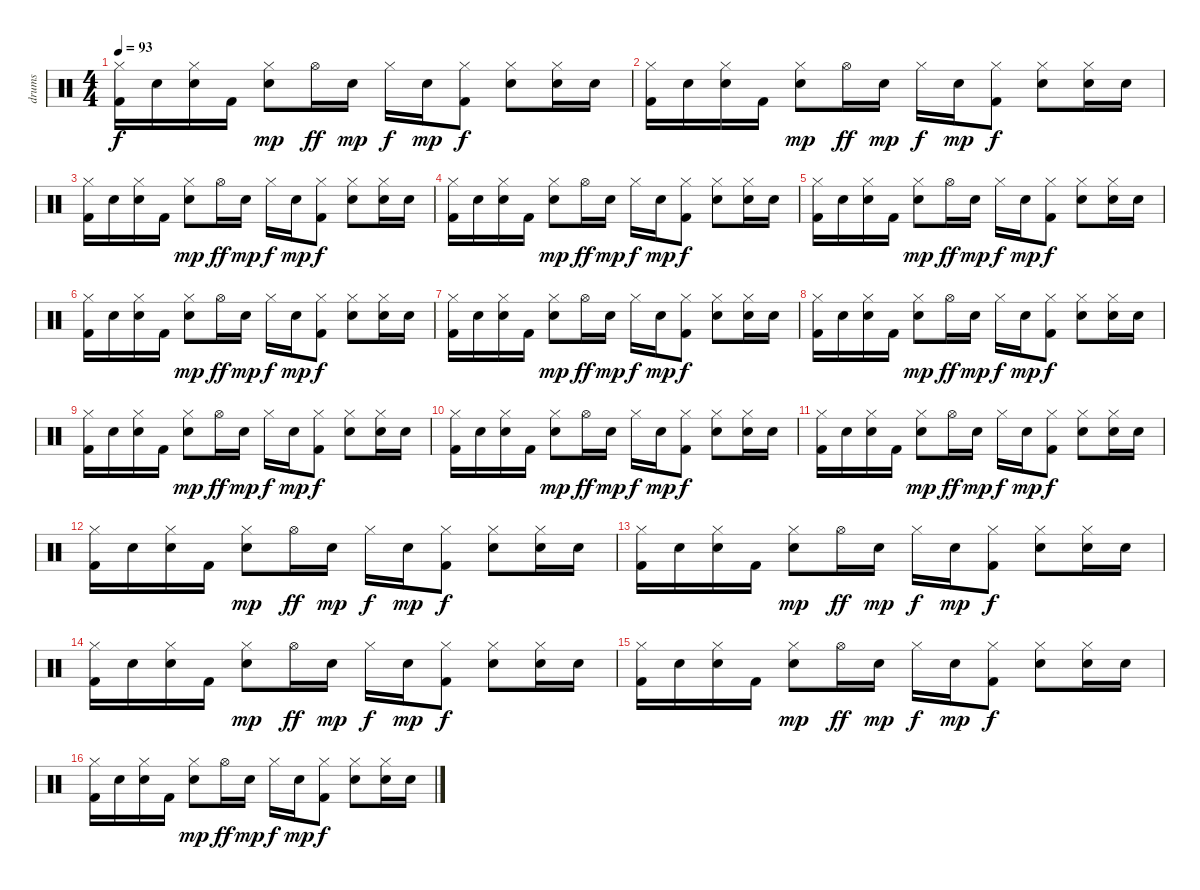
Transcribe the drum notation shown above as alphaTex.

\track ("drums" "drums") {instrument percussion}
\staff {score}
\articulation defaults
\ts (4 4)
\tempo 93
\clef neutral
\ks c
("Hi-Hat (closed)" "Kick (hit) 2").16{dy f} "Electric Snare (hit)".16 ("Hi-Hat (closed)" "Electric Snare (hit)").16 "Kick (hit) 2".16 ("Hi-Hat (closed)" "Electric Snare (hit)").8{dy mp} "Hi-Hat (open)".16{dy ff} "Electric Snare (hit)".16{dy mp} "Hi-Hat (closed)".16{dy f} "Electric Snare (hit)".16{dy mp} ("Hi-Hat (closed)" "Kick (hit) 2").8{dy f} ("Hi-Hat (closed)" "Electric Snare (hit)").8 ("Hi-Hat (closed)" "Electric Snare (hit)").16 "Electric Snare (hit)".16 |
("Hi-Hat (closed)" "Kick (hit) 2").16 "Electric Snare (hit)".16 ("Hi-Hat (closed)" "Electric Snare (hit)").16 "Kick (hit) 2".16 ("Hi-Hat (closed)" "Electric Snare (hit)").8{dy mp} "Hi-Hat (open)".16{dy ff} "Electric Snare (hit)".16{dy mp} "Hi-Hat (closed)".16{dy f} "Electric Snare (hit)".16{dy mp} ("Hi-Hat (closed)" "Kick (hit) 2").8{dy f} ("Hi-Hat (closed)" "Electric Snare (hit)").8 ("Hi-Hat (closed)" "Electric Snare (hit)").16 "Electric Snare (hit)".16 |
("Hi-Hat (closed)" "Kick (hit) 2").16 "Electric Snare (hit)".16 ("Hi-Hat (closed)" "Electric Snare (hit)").16 "Kick (hit) 2".16 ("Hi-Hat (closed)" "Electric Snare (hit)").8{dy mp} "Hi-Hat (open)".16{dy ff} "Electric Snare (hit)".16{dy mp} "Hi-Hat (closed)".16{dy f} "Electric Snare (hit)".16{dy mp} ("Hi-Hat (closed)" "Kick (hit) 2").8{dy f} ("Hi-Hat (closed)" "Electric Snare (hit)").8 ("Hi-Hat (closed)" "Electric Snare (hit)").16 "Electric Snare (hit)".16 |
("Hi-Hat (closed)" "Kick (hit) 2").16 "Electric Snare (hit)".16 ("Hi-Hat (closed)" "Electric Snare (hit)").16 "Kick (hit) 2".16 ("Hi-Hat (closed)" "Electric Snare (hit)").8{dy mp} "Hi-Hat (open)".16{dy ff} "Electric Snare (hit)".16{dy mp} "Hi-Hat (closed)".16{dy f} "Electric Snare (hit)".16{dy mp} ("Hi-Hat (closed)" "Kick (hit) 2").8{dy f} ("Hi-Hat (closed)" "Electric Snare (hit)").8 ("Hi-Hat (closed)" "Electric Snare (hit)").16 "Electric Snare (hit)".16 |
("Hi-Hat (closed)" "Kick (hit) 2").16 "Electric Snare (hit)".16 ("Hi-Hat (closed)" "Electric Snare (hit)").16 "Kick (hit) 2".16 ("Hi-Hat (closed)" "Electric Snare (hit)").8{dy mp} "Hi-Hat (open)".16{dy ff} "Electric Snare (hit)".16{dy mp} "Hi-Hat (closed)".16{dy f} "Electric Snare (hit)".16{dy mp} ("Hi-Hat (closed)" "Kick (hit) 2").8{dy f} ("Hi-Hat (closed)" "Electric Snare (hit)").8 ("Hi-Hat (closed)" "Electric Snare (hit)").16 "Electric Snare (hit)".16 |
("Hi-Hat (closed)" "Kick (hit) 2").16 "Electric Snare (hit)".16 ("Hi-Hat (closed)" "Electric Snare (hit)").16 "Kick (hit) 2".16 ("Hi-Hat (closed)" "Electric Snare (hit)").8{dy mp} "Hi-Hat (open)".16{dy ff} "Electric Snare (hit)".16{dy mp} "Hi-Hat (closed)".16{dy f} "Electric Snare (hit)".16{dy mp} ("Hi-Hat (closed)" "Kick (hit) 2").8{dy f} ("Hi-Hat (closed)" "Electric Snare (hit)").8 ("Hi-Hat (closed)" "Electric Snare (hit)").16 "Electric Snare (hit)".16 |
("Hi-Hat (closed)" "Kick (hit) 2").16 "Electric Snare (hit)".16 ("Hi-Hat (closed)" "Electric Snare (hit)").16 "Kick (hit) 2".16 ("Hi-Hat (closed)" "Electric Snare (hit)").8{dy mp} "Hi-Hat (open)".16{dy ff} "Electric Snare (hit)".16{dy mp} "Hi-Hat (closed)".16{dy f} "Electric Snare (hit)".16{dy mp} ("Hi-Hat (closed)" "Kick (hit) 2").8{dy f} ("Hi-Hat (closed)" "Electric Snare (hit)").8 ("Hi-Hat (closed)" "Electric Snare (hit)").16 "Electric Snare (hit)".16 |
("Hi-Hat (closed)" "Kick (hit) 2").16 "Electric Snare (hit)".16 ("Hi-Hat (closed)" "Electric Snare (hit)").16 "Kick (hit) 2".16 ("Hi-Hat (closed)" "Electric Snare (hit)").8{dy mp} "Hi-Hat (open)".16{dy ff} "Electric Snare (hit)".16{dy mp} "Hi-Hat (closed)".16{dy f} "Electric Snare (hit)".16{dy mp} ("Hi-Hat (closed)" "Kick (hit) 2").8{dy f} ("Hi-Hat (closed)" "Electric Snare (hit)").8 ("Hi-Hat (closed)" "Electric Snare (hit)").16 "Electric Snare (hit)".16 |
("Hi-Hat (closed)" "Kick (hit) 2").16 "Electric Snare (hit)".16 ("Hi-Hat (closed)" "Electric Snare (hit)").16 "Kick (hit) 2".16 ("Hi-Hat (closed)" "Electric Snare (hit)").8{dy mp} "Hi-Hat (open)".16{dy ff} "Electric Snare (hit)".16{dy mp} "Hi-Hat (closed)".16{dy f} "Electric Snare (hit)".16{dy mp} ("Hi-Hat (closed)" "Kick (hit) 2").8{dy f} ("Hi-Hat (closed)" "Electric Snare (hit)").8 ("Hi-Hat (closed)" "Electric Snare (hit)").16 "Electric Snare (hit)".16 |
("Hi-Hat (closed)" "Kick (hit) 2").16 "Electric Snare (hit)".16 ("Hi-Hat (closed)" "Electric Snare (hit)").16 "Kick (hit) 2".16 ("Hi-Hat (closed)" "Electric Snare (hit)").8{dy mp} "Hi-Hat (open)".16{dy ff} "Electric Snare (hit)".16{dy mp} "Hi-Hat (closed)".16{dy f} "Electric Snare (hit)".16{dy mp} ("Hi-Hat (closed)" "Kick (hit) 2").8{dy f} ("Hi-Hat (closed)" "Electric Snare (hit)").8 ("Hi-Hat (closed)" "Electric Snare (hit)").16 "Electric Snare (hit)".16 |
("Hi-Hat (closed)" "Kick (hit) 2").16 "Electric Snare (hit)".16 ("Hi-Hat (closed)" "Electric Snare (hit)").16 "Kick (hit) 2".16 ("Hi-Hat (closed)" "Electric Snare (hit)").8{dy mp} "Hi-Hat (open)".16{dy ff} "Electric Snare (hit)".16{dy mp} "Hi-Hat (closed)".16{dy f} "Electric Snare (hit)".16{dy mp} ("Hi-Hat (closed)" "Kick (hit) 2").8{dy f} ("Hi-Hat (closed)" "Electric Snare (hit)").8 ("Hi-Hat (closed)" "Electric Snare (hit)").16 "Electric Snare (hit)".16 |
("Hi-Hat (closed)" "Kick (hit) 2").16 "Electric Snare (hit)".16 ("Hi-Hat (closed)" "Electric Snare (hit)").16 "Kick (hit) 2".16 ("Hi-Hat (closed)" "Electric Snare (hit)").8{dy mp} "Hi-Hat (open)".16{dy ff} "Electric Snare (hit)".16{dy mp} "Hi-Hat (closed)".16{dy f} "Electric Snare (hit)".16{dy mp} ("Hi-Hat (closed)" "Kick (hit) 2").8{dy f} ("Hi-Hat (closed)" "Electric Snare (hit)").8 ("Hi-Hat (closed)" "Electric Snare (hit)").16 "Electric Snare (hit)".16 |
("Hi-Hat (closed)" "Kick (hit) 2").16 "Electric Snare (hit)".16 ("Hi-Hat (closed)" "Electric Snare (hit)").16 "Kick (hit) 2".16 ("Hi-Hat (closed)" "Electric Snare (hit)").8{dy mp} "Hi-Hat (open)".16{dy ff} "Electric Snare (hit)".16{dy mp} "Hi-Hat (closed)".16{dy f} "Electric Snare (hit)".16{dy mp} ("Hi-Hat (closed)" "Kick (hit) 2").8{dy f} ("Hi-Hat (closed)" "Electric Snare (hit)").8 ("Hi-Hat (closed)" "Electric Snare (hit)").16 "Electric Snare (hit)".16 |
("Hi-Hat (closed)" "Kick (hit) 2").16 "Electric Snare (hit)".16 ("Hi-Hat (closed)" "Electric Snare (hit)").16 "Kick (hit) 2".16 ("Hi-Hat (closed)" "Electric Snare (hit)").8{dy mp} "Hi-Hat (open)".16{dy ff} "Electric Snare (hit)".16{dy mp} "Hi-Hat (closed)".16{dy f} "Electric Snare (hit)".16{dy mp} ("Hi-Hat (closed)" "Kick (hit) 2").8{dy f} ("Hi-Hat (closed)" "Electric Snare (hit)").8 ("Hi-Hat (closed)" "Electric Snare (hit)").16 "Electric Snare (hit)".16 |
("Hi-Hat (closed)" "Kick (hit) 2").16 "Electric Snare (hit)".16 ("Hi-Hat (closed)" "Electric Snare (hit)").16 "Kick (hit) 2".16 ("Hi-Hat (closed)" "Electric Snare (hit)").8{dy mp} "Hi-Hat (open)".16{dy ff} "Electric Snare (hit)".16{dy mp} "Hi-Hat (closed)".16{dy f} "Electric Snare (hit)".16{dy mp} ("Hi-Hat (closed)" "Kick (hit) 2").8{dy f} ("Hi-Hat (closed)" "Electric Snare (hit)").8 ("Hi-Hat (closed)" "Electric Snare (hit)").16 "Electric Snare (hit)".16 |
("Hi-Hat (closed)" "Kick (hit) 2").16 "Electric Snare (hit)".16 ("Hi-Hat (closed)" "Electric Snare (hit)").16 "Kick (hit) 2".16 ("Hi-Hat (closed)" "Electric Snare (hit)").8{dy mp} "Hi-Hat (open)".16{dy ff} "Electric Snare (hit)".16{dy mp} "Hi-Hat (closed)".16{dy f} "Electric Snare (hit)".16{dy mp} ("Hi-Hat (closed)" "Kick (hit) 2").8{dy f} ("Hi-Hat (closed)" "Electric Snare (hit)").8 ("Hi-Hat (closed)" "Electric Snare (hit)").16 "Electric Snare (hit)".16
